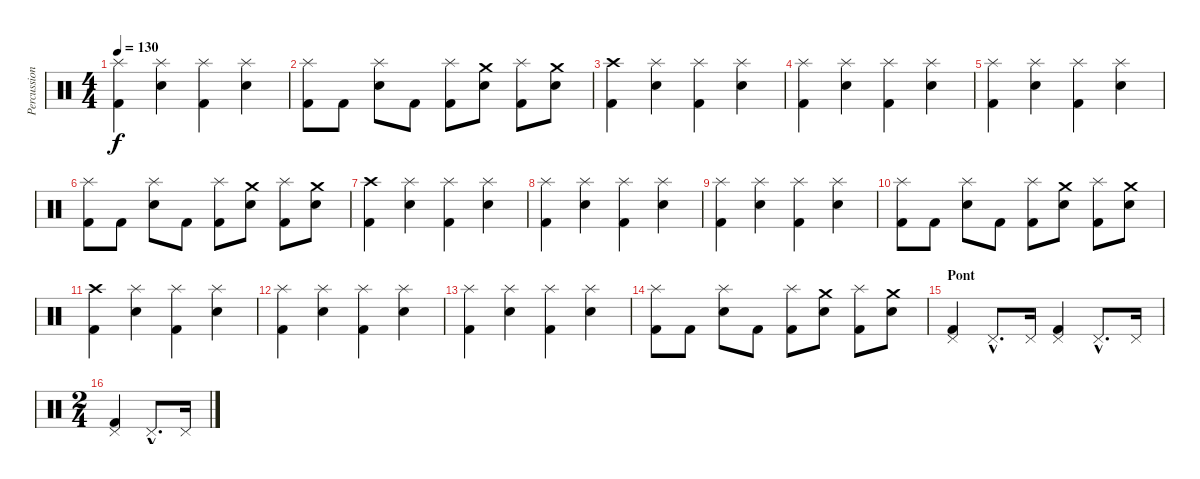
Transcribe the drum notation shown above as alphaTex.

\track ("Percussions" "Percussion") {instrument percussion}
\staff {score}
\articulation defaults
\ts (4 4)
\tempo 130
\clef neutral
\ks c
("Splash (hit)" "Kick (hit) 2").4{dy f} ("Splash (hit)" "Electric Snare (hit)").4 ("Splash (hit)" "Kick (hit) 2").4 ("Splash (hit)" "Electric Snare (hit)").4 |
("Splash (hit)" "Kick (hit) 2").8 "Kick (hit) 2".8 ("Splash (hit)" "Electric Snare (hit)").8 "Kick (hit) 2".8 ("Splash (hit)" "Kick (hit) 2").8 ("Crash medium (hit)" "Electric Snare (hit)").8 ("Splash (hit)" "Kick (hit) 2").8 ("Crash medium (hit)" "Electric Snare (hit)").8 |
("Crash high (hit)" "Kick (hit) 2").4 ("Splash (hit)" "Electric Snare (hit)").4 ("Splash (hit)" "Kick (hit) 2").4 ("Splash (hit)" "Electric Snare (hit)").4 |
("Splash (hit)" "Kick (hit) 2").4 ("Splash (hit)" "Electric Snare (hit)").4 ("Splash (hit)" "Kick (hit) 2").4 ("Splash (hit)" "Electric Snare (hit)").4 |
("Splash (hit)" "Kick (hit) 2").4 ("Splash (hit)" "Electric Snare (hit)").4 ("Splash (hit)" "Kick (hit) 2").4 ("Splash (hit)" "Electric Snare (hit)").4 |
("Splash (hit)" "Kick (hit) 2").8 "Kick (hit) 2".8 ("Splash (hit)" "Electric Snare (hit)").8 "Kick (hit) 2".8 ("Splash (hit)" "Kick (hit) 2").8 ("Crash medium (hit)" "Electric Snare (hit)").8 ("Splash (hit)" "Kick (hit) 2").8 ("Crash medium (hit)" "Electric Snare (hit)").8 |
("Crash high (hit)" "Kick (hit) 2").4 ("Splash (hit)" "Electric Snare (hit)").4 ("Splash (hit)" "Kick (hit) 2").4 ("Splash (hit)" "Electric Snare (hit)").4 |
("Splash (hit)" "Kick (hit) 2").4 ("Splash (hit)" "Electric Snare (hit)").4 ("Splash (hit)" "Kick (hit) 2").4 ("Splash (hit)" "Electric Snare (hit)").4 |
("Splash (hit)" "Kick (hit) 2").4 ("Splash (hit)" "Electric Snare (hit)").4 ("Splash (hit)" "Kick (hit) 2").4 ("Splash (hit)" "Electric Snare (hit)").4 |
("Splash (hit)" "Kick (hit) 2").8 "Kick (hit) 2".8 ("Splash (hit)" "Electric Snare (hit)").8 "Kick (hit) 2".8 ("Splash (hit)" "Kick (hit) 2").8 ("Crash medium (hit)" "Electric Snare (hit)").8 ("Splash (hit)" "Kick (hit) 2").8 ("Crash medium (hit)" "Electric Snare (hit)").8 |
("Crash high (hit)" "Kick (hit) 2").4 ("Splash (hit)" "Electric Snare (hit)").4 ("Splash (hit)" "Kick (hit) 2").4 ("Splash (hit)" "Electric Snare (hit)").4 |
("Splash (hit)" "Kick (hit) 2").4 ("Splash (hit)" "Electric Snare (hit)").4 ("Splash (hit)" "Kick (hit) 2").4 ("Splash (hit)" "Electric Snare (hit)").4 |
("Splash (hit)" "Kick (hit) 2").4 ("Splash (hit)" "Electric Snare (hit)").4 ("Splash (hit)" "Kick (hit) 2").4 ("Splash (hit)" "Electric Snare (hit)").4 |
("Splash (hit)" "Kick (hit) 2").8 "Kick (hit) 2".8 ("Splash (hit)" "Electric Snare (hit)").8 "Kick (hit) 2".8 ("Splash (hit)" "Kick (hit) 2").8 ("Crash medium (hit)" "Electric Snare (hit)").8 ("Splash (hit)" "Kick (hit) 2").8 ("Crash medium (hit)" "Electric Snare (hit)").8 |
\section ("" "Pont")
("Pedal Hi-Hat (hit)" "Kick (hit) 2").4 "Pedal Hi-Hat (hit)"{hac}.8{d} "Pedal Hi-Hat (hit)".16 ("Pedal Hi-Hat (hit)" "Kick (hit) 2").4 "Pedal Hi-Hat (hit)"{hac}.8{d} "Pedal Hi-Hat (hit)".16 |
\ts (2 4)
("Pedal Hi-Hat (hit)" "Kick (hit) 2").4 "Pedal Hi-Hat (hit)"{hac}.8{d} "Pedal Hi-Hat (hit)".16
